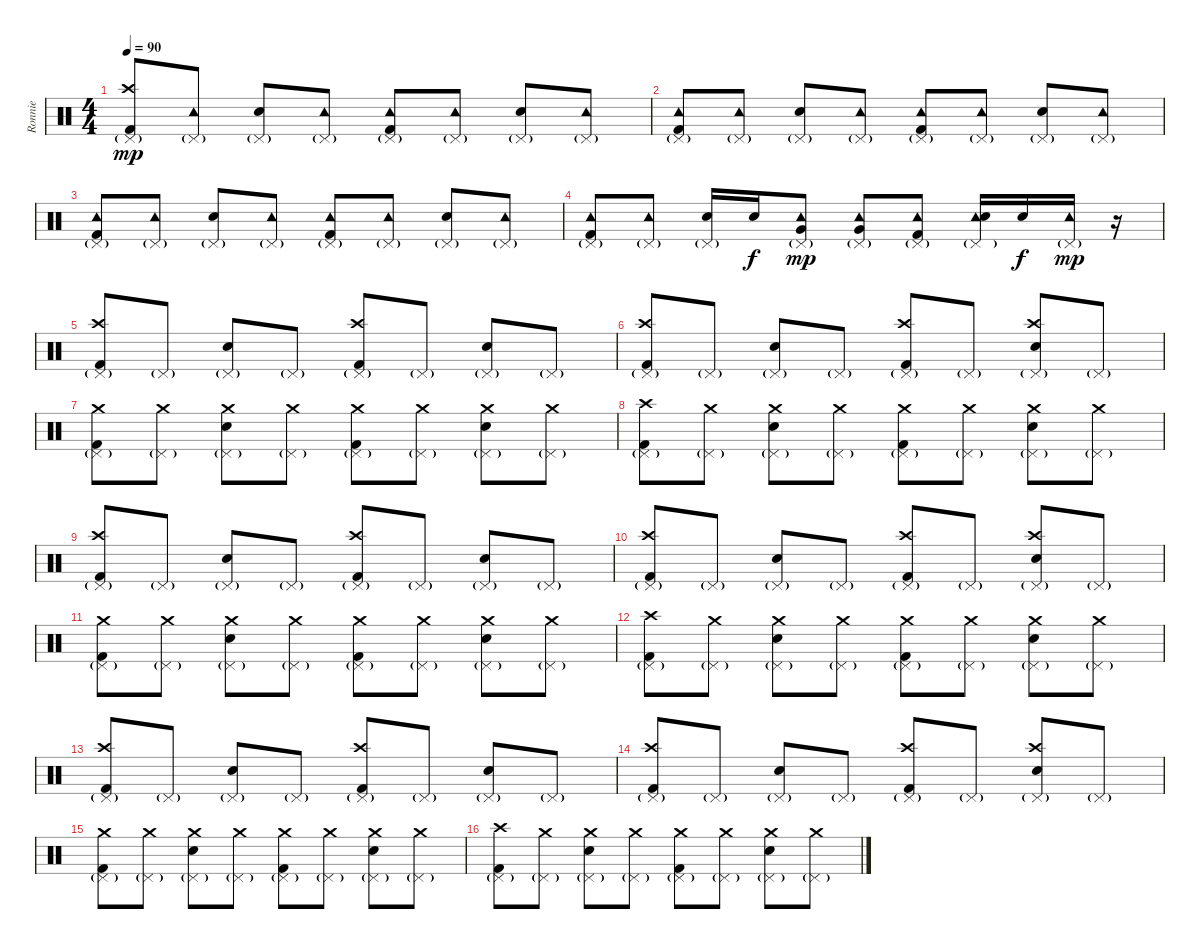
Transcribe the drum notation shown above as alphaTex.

\track ("Ronnie" "Ronnie") {instrument percussion}
\staff {score}
\articulation defaults
\ts (4 4)
\tempo 90
\clef neutral
\ks c
("Pedal Hi-Hat (hit)"{g} "Crash high (hit)" "Kick (hit) 2").8{dy mp} ("Pedal Hi-Hat (hit)"{g} "Tambourine (hit)").8 ("Pedal Hi-Hat (hit)"{g} "Electric Snare (hit)").8 ("Pedal Hi-Hat (hit)"{g} "Tambourine (hit)").8 ("Pedal Hi-Hat (hit)"{g} "Tambourine (hit)" "Kick (hit) 2").8 ("Pedal Hi-Hat (hit)"{g} "Tambourine (hit)").8 ("Pedal Hi-Hat (hit)"{g} "Electric Snare (hit)").8 ("Pedal Hi-Hat (hit)"{g} "Tambourine (hit)").8 |
("Pedal Hi-Hat (hit)"{g} "Tambourine (hit)" "Kick (hit) 2").8 ("Pedal Hi-Hat (hit)"{g} "Tambourine (hit)").8 ("Pedal Hi-Hat (hit)"{g} "Electric Snare (hit)").8 ("Pedal Hi-Hat (hit)"{g} "Tambourine (hit)").8 ("Pedal Hi-Hat (hit)"{g} "Tambourine (hit)" "Kick (hit) 2").8 ("Pedal Hi-Hat (hit)"{g} "Tambourine (hit)").8 ("Pedal Hi-Hat (hit)"{g} "Electric Snare (hit)").8 ("Pedal Hi-Hat (hit)"{g} "Tambourine (hit)").8 |
("Pedal Hi-Hat (hit)"{g} "Tambourine (hit)" "Kick (hit) 2").8 ("Pedal Hi-Hat (hit)"{g} "Tambourine (hit)").8 ("Pedal Hi-Hat (hit)"{g} "Electric Snare (hit)").8 ("Pedal Hi-Hat (hit)"{g} "Tambourine (hit)").8 ("Pedal Hi-Hat (hit)"{g} "Tambourine (hit)" "Kick (hit) 2").8 ("Pedal Hi-Hat (hit)"{g} "Tambourine (hit)").8 ("Pedal Hi-Hat (hit)"{g} "Electric Snare (hit)").8 ("Pedal Hi-Hat (hit)"{g} "Tambourine (hit)").8 |
("Pedal Hi-Hat (hit)"{g} "Tambourine (hit)" "Kick (hit) 2").8 ("Pedal Hi-Hat (hit)"{g} "Tambourine (hit)").8 ("Pedal Hi-Hat (hit)"{g} "Electric Snare (hit)").16 "Electric Snare (hit)".16{dy f} ("Pedal Hi-Hat (hit)"{g} "Tambourine (hit)" "Very Low Tom (hit)").8{dy mp} ("Pedal Hi-Hat (hit)"{g} "Tambourine (hit)" "Very Low Tom (hit)").8 ("Pedal Hi-Hat (hit)"{g} "Tambourine (hit)" "Kick (hit) 2").8 ("Pedal Hi-Hat (hit)"{g} "Tambourine (hit)" "Electric Snare (hit)").16 "Electric Snare (hit)".16{dy f} ("Pedal Hi-Hat (hit)"{g} "Tambourine (hit)").16{dy mp} r.16 |
("Pedal Hi-Hat (hit)"{g} "Crash high (hit)" "Kick (hit) 2").8 "Pedal Hi-Hat (hit)"{g}.8 ("Pedal Hi-Hat (hit)"{g} "Electric Snare (hit)").8 "Pedal Hi-Hat (hit)"{g}.8 ("Pedal Hi-Hat (hit)"{g} "Crash high (hit)" "Kick (hit) 2").8 "Pedal Hi-Hat (hit)"{g}.8 ("Pedal Hi-Hat (hit)"{g} "Electric Snare (hit)").8 "Pedal Hi-Hat (hit)"{g}.8 |
("Pedal Hi-Hat (hit)"{g} "Crash high (hit)" "Kick (hit) 2").8 "Pedal Hi-Hat (hit)"{g}.8 ("Pedal Hi-Hat (hit)"{g} "Electric Snare (hit)").8 "Pedal Hi-Hat (hit)"{g}.8 ("Pedal Hi-Hat (hit)"{g} "Crash high (hit)" "Kick (hit) 2").8 "Pedal Hi-Hat (hit)"{g}.8 ("Pedal Hi-Hat (hit)"{g} "Crash high (hit)" "Electric Snare (hit)").8 "Pedal Hi-Hat (hit)"{g}.8 |
("Pedal Hi-Hat (hit)"{g} "Crash medium (hit)" "Kick (hit) 2").8 ("Pedal Hi-Hat (hit)"{g} "Crash medium (hit)").8 ("Pedal Hi-Hat (hit)"{g} "Crash medium (hit)" "Electric Snare (hit)").8 ("Pedal Hi-Hat (hit)"{g} "Crash medium (hit)").8 ("Pedal Hi-Hat (hit)"{g} "Crash medium (hit)" "Kick (hit) 2").8 ("Pedal Hi-Hat (hit)"{g} "Crash medium (hit)").8 ("Pedal Hi-Hat (hit)"{g} "Crash medium (hit)" "Electric Snare (hit)").8 ("Pedal Hi-Hat (hit)"{g} "Crash medium (hit)").8 |
("Pedal Hi-Hat (hit)"{g} "Crash high (hit)" "Kick (hit) 2").8 ("Pedal Hi-Hat (hit)"{g} "Crash medium (hit)").8 ("Pedal Hi-Hat (hit)"{g} "Crash medium (hit)" "Electric Snare (hit)").8 ("Pedal Hi-Hat (hit)"{g} "Crash medium (hit)").8 ("Pedal Hi-Hat (hit)"{g} "Crash medium (hit)" "Kick (hit) 2").8 ("Pedal Hi-Hat (hit)"{g} "Crash medium (hit)").8 ("Pedal Hi-Hat (hit)"{g} "Crash medium (hit)" "Electric Snare (hit)").8 ("Pedal Hi-Hat (hit)"{g} "Crash medium (hit)").8 |
("Pedal Hi-Hat (hit)"{g} "Crash high (hit)" "Kick (hit) 2").8 "Pedal Hi-Hat (hit)"{g}.8 ("Pedal Hi-Hat (hit)"{g} "Electric Snare (hit)").8 "Pedal Hi-Hat (hit)"{g}.8 ("Pedal Hi-Hat (hit)"{g} "Crash high (hit)" "Kick (hit) 2").8 "Pedal Hi-Hat (hit)"{g}.8 ("Pedal Hi-Hat (hit)"{g} "Electric Snare (hit)").8 "Pedal Hi-Hat (hit)"{g}.8 |
("Pedal Hi-Hat (hit)"{g} "Crash high (hit)" "Kick (hit) 2").8 "Pedal Hi-Hat (hit)"{g}.8 ("Pedal Hi-Hat (hit)"{g} "Electric Snare (hit)").8 "Pedal Hi-Hat (hit)"{g}.8 ("Pedal Hi-Hat (hit)"{g} "Crash high (hit)" "Kick (hit) 2").8 "Pedal Hi-Hat (hit)"{g}.8 ("Pedal Hi-Hat (hit)"{g} "Crash high (hit)" "Electric Snare (hit)").8 "Pedal Hi-Hat (hit)"{g}.8 |
("Pedal Hi-Hat (hit)"{g} "Crash medium (hit)" "Kick (hit) 2").8 ("Pedal Hi-Hat (hit)"{g} "Crash medium (hit)").8 ("Pedal Hi-Hat (hit)"{g} "Crash medium (hit)" "Electric Snare (hit)").8 ("Pedal Hi-Hat (hit)"{g} "Crash medium (hit)").8 ("Pedal Hi-Hat (hit)"{g} "Crash medium (hit)" "Kick (hit) 2").8 ("Pedal Hi-Hat (hit)"{g} "Crash medium (hit)").8 ("Pedal Hi-Hat (hit)"{g} "Crash medium (hit)" "Electric Snare (hit)").8 ("Pedal Hi-Hat (hit)"{g} "Crash medium (hit)").8 |
("Pedal Hi-Hat (hit)"{g} "Crash high (hit)" "Kick (hit) 2").8 ("Pedal Hi-Hat (hit)"{g} "Crash medium (hit)").8 ("Pedal Hi-Hat (hit)"{g} "Crash medium (hit)" "Electric Snare (hit)").8 ("Pedal Hi-Hat (hit)"{g} "Crash medium (hit)").8 ("Pedal Hi-Hat (hit)"{g} "Crash medium (hit)" "Kick (hit) 2").8 ("Pedal Hi-Hat (hit)"{g} "Crash medium (hit)").8 ("Pedal Hi-Hat (hit)"{g} "Crash medium (hit)" "Electric Snare (hit)").8 ("Pedal Hi-Hat (hit)"{g} "Crash medium (hit)").8 |
("Pedal Hi-Hat (hit)"{g} "Crash high (hit)" "Kick (hit) 2").8 "Pedal Hi-Hat (hit)"{g}.8 ("Pedal Hi-Hat (hit)"{g} "Electric Snare (hit)").8 "Pedal Hi-Hat (hit)"{g}.8 ("Pedal Hi-Hat (hit)"{g} "Crash high (hit)" "Kick (hit) 2").8 "Pedal Hi-Hat (hit)"{g}.8 ("Pedal Hi-Hat (hit)"{g} "Electric Snare (hit)").8 "Pedal Hi-Hat (hit)"{g}.8 |
("Pedal Hi-Hat (hit)"{g} "Crash high (hit)" "Kick (hit) 2").8 "Pedal Hi-Hat (hit)"{g}.8 ("Pedal Hi-Hat (hit)"{g} "Electric Snare (hit)").8 "Pedal Hi-Hat (hit)"{g}.8 ("Pedal Hi-Hat (hit)"{g} "Crash high (hit)" "Kick (hit) 2").8 "Pedal Hi-Hat (hit)"{g}.8 ("Pedal Hi-Hat (hit)"{g} "Crash high (hit)" "Electric Snare (hit)").8 "Pedal Hi-Hat (hit)"{g}.8 |
("Pedal Hi-Hat (hit)"{g} "Crash medium (hit)" "Kick (hit) 2").8 ("Pedal Hi-Hat (hit)"{g} "Crash medium (hit)").8 ("Pedal Hi-Hat (hit)"{g} "Crash medium (hit)" "Electric Snare (hit)").8 ("Pedal Hi-Hat (hit)"{g} "Crash medium (hit)").8 ("Pedal Hi-Hat (hit)"{g} "Crash medium (hit)" "Kick (hit) 2").8 ("Pedal Hi-Hat (hit)"{g} "Crash medium (hit)").8 ("Pedal Hi-Hat (hit)"{g} "Crash medium (hit)" "Electric Snare (hit)").8 ("Pedal Hi-Hat (hit)"{g} "Crash medium (hit)").8 |
("Pedal Hi-Hat (hit)"{g} "Crash high (hit)" "Kick (hit) 2").8 ("Pedal Hi-Hat (hit)"{g} "Crash medium (hit)").8 ("Pedal Hi-Hat (hit)"{g} "Crash medium (hit)" "Electric Snare (hit)").8 ("Pedal Hi-Hat (hit)"{g} "Crash medium (hit)").8 ("Pedal Hi-Hat (hit)"{g} "Crash medium (hit)" "Kick (hit) 2").8 ("Pedal Hi-Hat (hit)"{g} "Crash medium (hit)").8 ("Pedal Hi-Hat (hit)"{g} "Crash medium (hit)" "Electric Snare (hit)").8 ("Pedal Hi-Hat (hit)"{g} "Crash medium (hit)").8
